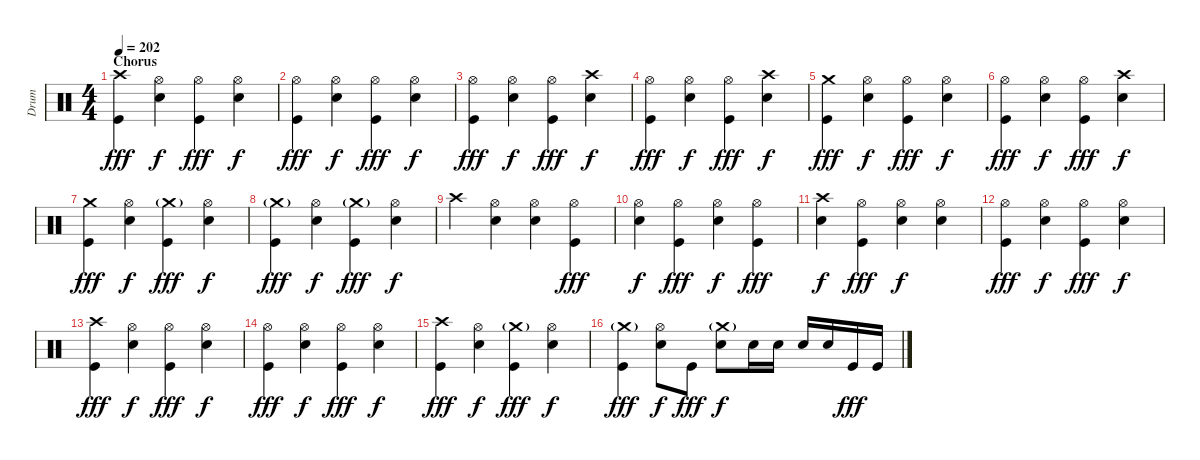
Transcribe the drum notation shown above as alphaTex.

\track ("Drum" "Drum") {instrument percussion}
\staff {score}
\articulation defaults
\ts (4 4)
\section ("" "Chorus")
\tempo 202
\clef neutral
\ks c
("Crash high (hit)" "Kick (hit)").4{dy fff} ("Hi-Hat (open)" "Electric Snare (hit)").4{dy f} ("Hi-Hat (open)" "Kick (hit)").4{dy fff} ("Hi-Hat (open)" "Electric Snare (hit)").4{dy f} |
("Hi-Hat (open)" "Kick (hit)").4{dy fff} ("Hi-Hat (open)" "Electric Snare (hit)").4{dy f} ("Hi-Hat (open)" "Kick (hit)").4{dy fff} ("Hi-Hat (open)" "Electric Snare (hit)").4{dy f} |
("Hi-Hat (open)" "Kick (hit)").4{dy fff} ("Hi-Hat (open)" "Electric Snare (hit)").4{dy f} ("Hi-Hat (open)" "Kick (hit)").4{dy fff} ("Crash high (hit)" "Electric Snare (hit)").4{dy f} |
("Hi-Hat (open)" "Kick (hit)").4{dy fff} ("Hi-Hat (open)" "Electric Snare (hit)").4{dy f} ("Hi-Hat (open)" "Kick (hit)").4{dy fff} ("Crash high (hit)" "Electric Snare (hit)").4{dy f} |
("Crash medium (hit)" "Kick (hit)").4{dy fff} ("Hi-Hat (open)" "Electric Snare (hit)").4{dy f} ("Hi-Hat (open)" "Kick (hit)").4{dy fff} ("Hi-Hat (open)" "Electric Snare (hit)").4{dy f} |
("Hi-Hat (open)" "Kick (hit)").4{dy fff} ("Hi-Hat (open)" "Electric Snare (hit)").4{dy f} ("Hi-Hat (open)" "Kick (hit)").4{dy fff} ("Crash high (hit)" "Electric Snare (hit)").4{dy f} |
("Crash medium (hit)" "Kick (hit)").4{dy fff} ("Hi-Hat (open)" "Electric Snare (hit)").4{dy f} ("Crash medium (hit)"{g} "Kick (hit)").4{dy fff} ("Hi-Hat (open)" "Electric Snare (hit)").4{dy f} |
("Crash medium (hit)"{g} "Kick (hit)").4{dy fff} ("Hi-Hat (open)" "Electric Snare (hit)").4{dy f} ("Crash medium (hit)"{g} "Kick (hit)").4{dy fff} ("Hi-Hat (open)" "Electric Snare (hit)").4{dy f} |
"Crash high (hit)".4 ("Hi-Hat (open)" "Electric Snare (hit)").4 ("Hi-Hat (open)" "Electric Snare (hit)").4 ("Hi-Hat (open)" "Kick (hit)").4{dy fff} |
("Hi-Hat (open)" "Electric Snare (hit)").4{dy f} ("Hi-Hat (open)" "Kick (hit)").4{dy fff} ("Hi-Hat (open)" "Electric Snare (hit)").4{dy f} ("Hi-Hat (open)" "Kick (hit)").4{dy fff} |
("Crash high (hit)" "Electric Snare (hit)").4{dy f} ("Hi-Hat (open)" "Kick (hit)").4{dy fff} ("Hi-Hat (open)" "Electric Snare (hit)").4{dy f} ("Hi-Hat (open)" "Electric Snare (hit)").4 |
("Hi-Hat (open)" "Kick (hit)").4{dy fff} ("Hi-Hat (open)" "Electric Snare (hit)").4{dy f} ("Hi-Hat (open)" "Kick (hit)").4{dy fff} ("Hi-Hat (open)" "Electric Snare (hit)").4{dy f} |
("Crash high (hit)" "Kick (hit)").4{dy fff} ("Hi-Hat (open)" "Electric Snare (hit)").4{dy f} ("Hi-Hat (open)" "Kick (hit)").4{dy fff} ("Hi-Hat (open)" "Electric Snare (hit)").4{dy f} |
("Hi-Hat (open)" "Kick (hit)").4{dy fff} ("Hi-Hat (open)" "Electric Snare (hit)").4{dy f} ("Hi-Hat (open)" "Kick (hit)").4{dy fff} ("Hi-Hat (open)" "Electric Snare (hit)").4{dy f} |
("Crash high (hit)" "Kick (hit)").4{dy fff} ("Hi-Hat (open)" "Electric Snare (hit)").4{dy f} ("Crash medium (hit)"{g} "Kick (hit)").4{dy fff} ("Hi-Hat (open)" "Electric Snare (hit)").4{dy f} |
("Crash medium (hit)"{g} "Kick (hit)").4{dy fff} ("Hi-Hat (open)" "Electric Snare (hit)").8{dy f} "Kick (hit)".8{dy fff} ("Crash medium (hit)"{g} "Electric Snare (hit)").8{dy f} "Electric Snare (hit)".16 "Electric Snare (hit)".16 "Electric Snare (hit)".16 "Electric Snare (hit)".16 "Kick (hit)".16{dy fff} "Kick (hit)".16
